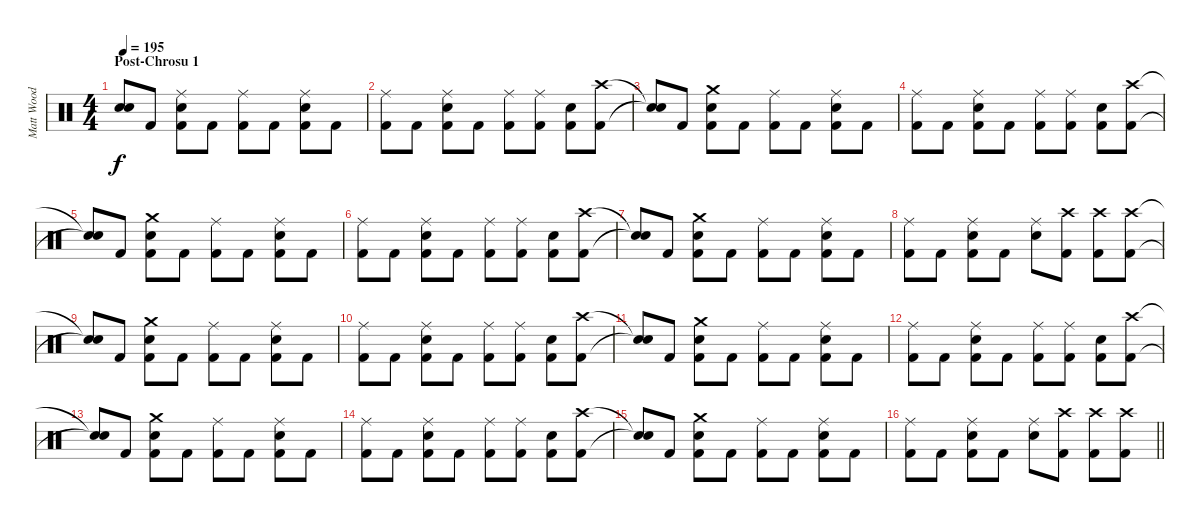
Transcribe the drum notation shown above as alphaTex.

\track ("Matt Wood" "Matt Wood") {instrument percussion}
\staff {score}
\articulation defaults
\ts (4 4)
\section ("" "Post-Chrosu 1")
\tempo 195
\clef neutral
\ks c
("Snare (hit)"{t} "Snare (hit)"{t}).8{dy f} "Kick (hit) 2".8 ("Ride (middle)" "Snare (hit) 2" "Kick (hit) 2").8 "Kick (hit) 2".8 ("Ride (middle)" "Kick (hit) 2").8 "Kick (hit) 2".8 ("Ride (middle)" "Snare (hit) 2" "Kick (hit) 2").8 "Kick (hit) 2".8 |
("Ride (middle)" "Kick (hit) 2").8 "Kick (hit) 2".8 ("Ride (middle)" "Snare (hit) 2" "Kick (hit) 2").8 "Kick (hit) 2".8 ("Ride (middle)" "Kick (hit) 2").8 ("Ride (middle)" "Kick (hit) 2").8 ("Snare (hit) 2" "Kick (hit) 2").8 ("Crash high (hit)" "Kick (hit) 2").8 |
("Snare (hit)"{t} "Snare (hit)"{t}).8 "Kick (hit) 2".8 ("Crash medium (hit)" "Snare (hit) 2" "Kick (hit) 2").8 "Kick (hit) 2".8 ("Ride (middle)" "Kick (hit) 2").8 "Kick (hit) 2".8 ("Ride (middle)" "Snare (hit) 2" "Kick (hit) 2").8 "Kick (hit) 2".8 |
("Ride (middle)" "Kick (hit) 2").8 "Kick (hit) 2".8 ("Ride (middle)" "Snare (hit) 2" "Kick (hit) 2").8 "Kick (hit) 2".8 ("Ride (middle)" "Kick (hit) 2").8 ("Ride (middle)" "Kick (hit) 2").8 ("Snare (hit) 2" "Kick (hit) 2").8 ("Crash high (hit)" "Kick (hit) 2").8 |
("Snare (hit)"{t} "Snare (hit)"{t}).8 "Kick (hit) 2".8 ("Crash medium (hit)" "Snare (hit) 2" "Kick (hit) 2").8 "Kick (hit) 2".8 ("Ride (middle)" "Kick (hit) 2").8 "Kick (hit) 2".8 ("Ride (middle)" "Snare (hit) 2" "Kick (hit) 2").8 "Kick (hit) 2".8 |
("Ride (middle)" "Kick (hit) 2").8 "Kick (hit) 2".8 ("Ride (middle)" "Snare (hit) 2" "Kick (hit) 2").8 "Kick (hit) 2".8 ("Ride (middle)" "Kick (hit) 2").8 ("Ride (middle)" "Kick (hit) 2").8 ("Snare (hit) 2" "Kick (hit) 2").8 ("Crash high (hit)" "Kick (hit) 2").8 |
("Snare (hit)"{t} "Snare (hit)"{t}).8 "Kick (hit) 2".8 ("Crash medium (hit)" "Snare (hit) 2" "Kick (hit) 2").8 "Kick (hit) 2".8 ("Ride (middle)" "Kick (hit) 2").8 "Kick (hit) 2".8 ("Ride (middle)" "Snare (hit) 2" "Kick (hit) 2").8 "Kick (hit) 2".8 |
("Ride (middle)" "Kick (hit) 2").8 "Kick (hit) 2".8 ("Ride (middle)" "Snare (hit) 2" "Kick (hit) 2").8 "Kick (hit) 2".8 ("Ride (middle)" "Snare (hit) 2").8 ("Crash high (hit)" "Kick (hit) 2").8 ("Crash high (hit)" "Kick (hit) 2").8 ("Crash high (hit)" "Kick (hit) 2").8 |
("Snare (hit)"{t} "Snare (hit)"{t}).8 "Kick (hit) 2".8 ("Crash medium (hit)" "Snare (hit) 2" "Kick (hit) 2").8 "Kick (hit) 2".8 ("Ride (middle)" "Kick (hit) 2").8 "Kick (hit) 2".8 ("Ride (middle)" "Snare (hit) 2" "Kick (hit) 2").8 "Kick (hit) 2".8 |
("Ride (middle)" "Kick (hit) 2").8 "Kick (hit) 2".8 ("Ride (middle)" "Snare (hit) 2" "Kick (hit) 2").8 "Kick (hit) 2".8 ("Ride (middle)" "Kick (hit) 2").8 ("Ride (middle)" "Kick (hit) 2").8 ("Snare (hit) 2" "Kick (hit) 2").8 ("Crash high (hit)" "Kick (hit) 2").8 |
("Snare (hit)"{t} "Snare (hit)"{t}).8 "Kick (hit) 2".8 ("Crash medium (hit)" "Snare (hit) 2" "Kick (hit) 2").8 "Kick (hit) 2".8 ("Ride (middle)" "Kick (hit) 2").8 "Kick (hit) 2".8 ("Ride (middle)" "Snare (hit) 2" "Kick (hit) 2").8 "Kick (hit) 2".8 |
("Ride (middle)" "Kick (hit) 2").8 "Kick (hit) 2".8 ("Ride (middle)" "Snare (hit) 2" "Kick (hit) 2").8 "Kick (hit) 2".8 ("Ride (middle)" "Kick (hit) 2").8 ("Ride (middle)" "Kick (hit) 2").8 ("Snare (hit) 2" "Kick (hit) 2").8 ("Crash high (hit)" "Kick (hit) 2").8 |
("Snare (hit)"{t} "Snare (hit)"{t}).8 "Kick (hit) 2".8 ("Crash medium (hit)" "Snare (hit) 2" "Kick (hit) 2").8 "Kick (hit) 2".8 ("Ride (middle)" "Kick (hit) 2").8 "Kick (hit) 2".8 ("Ride (middle)" "Snare (hit) 2" "Kick (hit) 2").8 "Kick (hit) 2".8 |
("Ride (middle)" "Kick (hit) 2").8 "Kick (hit) 2".8 ("Ride (middle)" "Snare (hit) 2" "Kick (hit) 2").8 "Kick (hit) 2".8 ("Ride (middle)" "Kick (hit) 2").8 ("Ride (middle)" "Kick (hit) 2").8 ("Snare (hit) 2" "Kick (hit) 2").8 ("Crash high (hit)" "Kick (hit) 2").8 |
("Snare (hit)"{t} "Snare (hit)"{t}).8 "Kick (hit) 2".8 ("Crash medium (hit)" "Snare (hit) 2" "Kick (hit) 2").8 "Kick (hit) 2".8 ("Ride (middle)" "Kick (hit) 2").8 "Kick (hit) 2".8 ("Ride (middle)" "Snare (hit) 2" "Kick (hit) 2").8 "Kick (hit) 2".8 |
\barLineRight lightlight
("Ride (middle)" "Kick (hit) 2").8 "Kick (hit) 2".8 ("Ride (middle)" "Snare (hit) 2" "Kick (hit) 2").8 "Kick (hit) 2".8 ("Ride (middle)" "Snare (hit) 2").8 ("Crash high (hit)" "Kick (hit) 2").8 ("Crash high (hit)" "Kick (hit) 2").8 ("Crash high (hit)" "Kick (hit) 2").8
